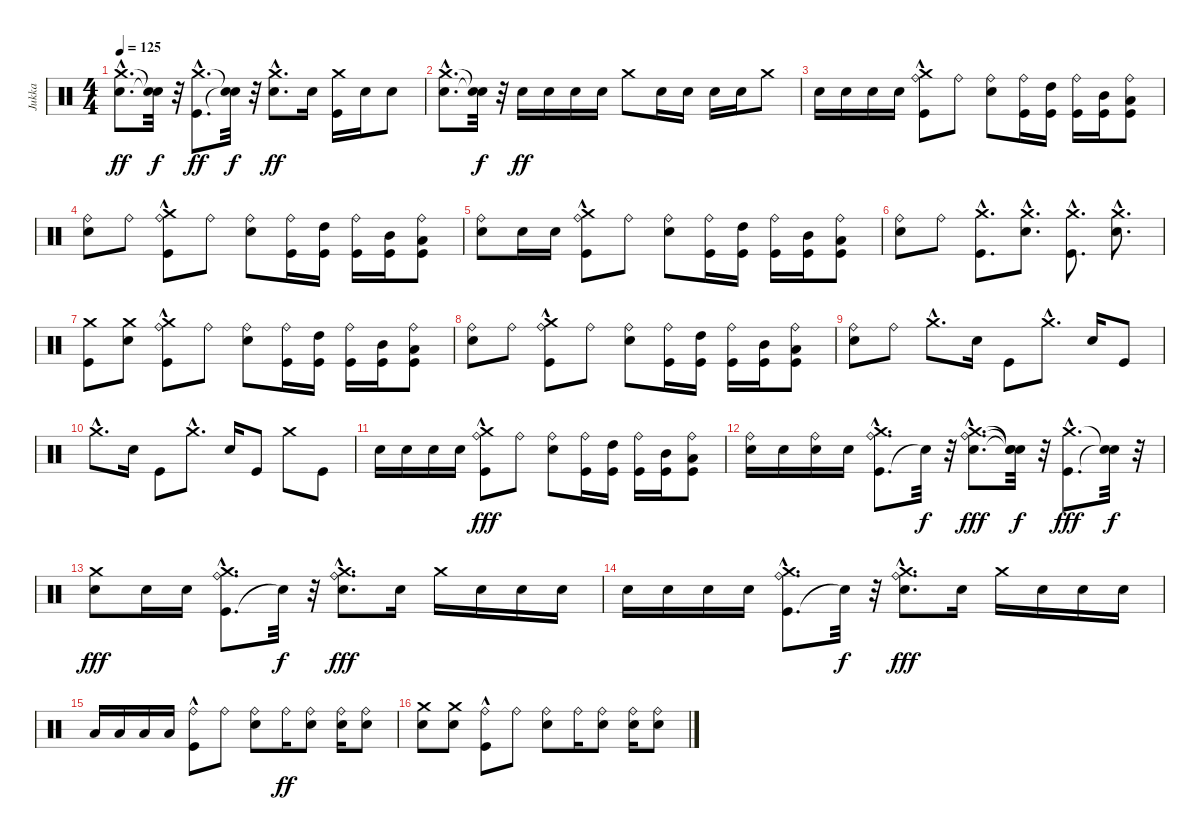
\track ("Jukka" "Jukka") {instrument percussion}
\staff {score}
\articulation defaults
\ts (4 4)
\tempo 125
\clef neutral
\ks c
("Electric Snare (hit)"{hac} "Crash medium (hit)"{hac}).8{d dy ff} ("Snare (hit)"{t} "Snare (hit)"{t}).32{dy f} r.32 ("Kick (hit)"{hac} "Crash medium (hit)"{hac}).8{d dy ff} ("Snare (hit)"{t} "Snare (hit)"{t}).32{dy f} r.32 ("Electric Snare (hit)"{hac} "Crash medium (hit)"{hac}).8{d dy ff} "Electric Snare (hit)".16 ("Kick (hit)" "Crash medium (hit)").16 "Electric Snare (hit)".16 "Electric Snare (hit)".8 |
("Electric Snare (hit)"{hac} "Crash medium (hit)"{hac}).8{d} ("Snare (hit)"{t} "Snare (hit)"{t}).32{dy f} r.32 "Electric Snare (hit)".16{dy ff} "Electric Snare (hit)".16 "Electric Snare (hit)".16 "Electric Snare (hit)".16 "Crash medium (hit)".8 "Electric Snare (hit)".16 "Electric Snare (hit)".16 "Electric Snare (hit)".16 "Electric Snare (hit)".16 "Crash medium (hit)".8 |
"Electric Snare (hit)".16 "Electric Snare (hit)".16 "Electric Snare (hit)".16 "Electric Snare (hit)".16 ("Kick (hit)" "Ride (bell)" "Crash medium (hit)"{hac}).8 "Ride (bell)".8 ("Electric Snare (hit)" "Ride (bell)").8 ("Kick (hit)" "Ride (bell)").16 ("Kick (hit)" "High Tom (hit)").16 ("Kick (hit)" "Ride (bell)").16 ("Kick (hit)" "Mid Tom (hit)").16 ("Kick (hit)" "Low Tom (hit)" "Ride (bell)").8 |
("Electric Snare (hit)" "Ride (bell)").8 "Ride (bell)".8 ("Kick (hit)" "Ride (bell)" "Crash medium (hit)"{hac}).8 "Ride (bell)".8 ("Electric Snare (hit)" "Ride (bell)").8 ("Kick (hit)" "Ride (bell)").16 ("Kick (hit)" "High Tom (hit)").16 ("Kick (hit)" "Ride (bell)").16 ("Kick (hit)" "Mid Tom (hit)").16 ("Kick (hit)" "Low Tom (hit)" "Ride (bell)").8 |
("Electric Snare (hit)" "Ride (bell)").8 "Electric Snare (hit)".16 "Electric Snare (hit)".16 ("Kick (hit)" "Ride (bell)" "Crash medium (hit)"{hac}).8 "Ride (bell)".8 ("Electric Snare (hit)" "Ride (bell)").8 ("Kick (hit)" "Ride (bell)").16 ("Kick (hit)" "High Tom (hit)").16 ("Kick (hit)" "Ride (bell)").16 ("Kick (hit)" "Mid Tom (hit)").16 ("Kick (hit)" "Low Tom (hit)" "Ride (bell)").8 |
("Electric Snare (hit)" "Ride (bell)").8 "Ride (bell)".8 ("Kick (hit)"{hac} "Crash medium (hit)"{hac}).8{d} ("Electric Snare (hit)"{hac} "Crash medium (hit)"{hac}).8{d} ("Kick (hit)"{hac} "Crash medium (hit)"{hac}).8{d} ("Electric Snare (hit)"{hac} "Crash medium (hit)"{hac}).8{d} |
("Kick (hit)" "Crash medium (hit)").8 ("Electric Snare (hit)" "Crash medium (hit)").8 ("Kick (hit)" "Ride (bell)" "Crash medium (hit)"{hac}).8 "Ride (bell)".8 ("Electric Snare (hit)" "Ride (bell)").8 ("Kick (hit)" "Ride (bell)").16 ("Kick (hit)" "High Tom (hit)").16 ("Kick (hit)" "Ride (bell)").16 ("Kick (hit)" "Mid Tom (hit)").16 ("Kick (hit)" "Low Tom (hit)" "Ride (bell)").8 |
("Electric Snare (hit)" "Ride (bell)").8 "Ride (bell)".8 ("Kick (hit)" "Ride (bell)" "Crash medium (hit)"{hac}).8 "Ride (bell)".8 ("Electric Snare (hit)" "Ride (bell)").8 ("Kick (hit)" "Ride (bell)").16 ("Kick (hit)" "High Tom (hit)").16 ("Kick (hit)" "Ride (bell)").16 ("Kick (hit)" "Mid Tom (hit)").16 ("Kick (hit)" "Low Tom (hit)" "Ride (bell)").8 |
("Electric Snare (hit)" "Ride (bell)").8 "Ride (bell)".8 "Crash medium (hit)"{hac}.8{d} "Electric Snare (hit)".16 "Kick (hit)".8 "Crash medium (hit)"{hac}.8{d} "Electric Snare (hit)".16 "Kick (hit)".8 |
"Crash medium (hit)"{hac}.8{d} "Electric Snare (hit)".16 "Kick (hit)".8 "Crash medium (hit)"{hac}.8{d} "Electric Snare (hit)".16 "Kick (hit)".8 "Crash medium (hit)".8 "Kick (hit)".8 |
"Electric Snare (hit)".16 "Electric Snare (hit)".16 "Electric Snare (hit)".16 "Electric Snare (hit)".16 ("Kick (hit)" "Ride (bell)" "Crash medium (hit)"{hac}).8{dy fff} "Ride (bell)".8 ("Electric Snare (hit)" "Ride (bell)").8 ("Kick (hit)" "Ride (bell)").16 ("Kick (hit)" "High Tom (hit)").16 ("Kick (hit)" "Ride (bell)").16 ("Kick (hit)" "Mid Tom (hit)").16 ("Kick (hit)" "Low Tom (hit)" "Ride (bell)").8 |
("Electric Snare (hit)" "Ride (bell)").16 "Electric Snare (hit)".16 ("Electric Snare (hit)" "Ride (bell)").16 "Electric Snare (hit)".16 ("Kick (hit)" "Ride (bell)" "Crash medium (hit)"{hac}).8{d} "Snare (hit)"{t}.32{dy f} r.32 ("Electric Snare (hit)"{hac} "Ride (bell)"{hac} "Crash medium (hit)"{hac}).8{d dy fff} ("Snare (hit)"{t} "Snare (hit)"{t} "Snare (hit)"{t}).32{dy f} r.32 ("Kick (hit)"{hac} "Crash medium (hit)"{hac}).8{d dy fff} ("Snare (hit)"{t} "Snare (hit)"{t}).32{dy f} r.32 |
("Electric Snare (hit)" "Crash medium (hit)").8{dy fff} "Electric Snare (hit)".16 "Electric Snare (hit)".16 ("Kick (hit)" "Ride (bell)" "Crash medium (hit)"{hac}).8{d} "Snare (hit)"{t}.32{dy f} r.32 ("Electric Snare (hit)"{hac} "Ride (bell)"{hac} "Crash medium (hit)"{hac}).8{d dy fff} "Electric Snare (hit)".16 "Crash medium (hit)".16 "Electric Snare (hit)".16 "Electric Snare (hit)".16 "Electric Snare (hit)".16 |
"Electric Snare (hit)".16 "Electric Snare (hit)".16 "Electric Snare (hit)".16 "Electric Snare (hit)".16 ("Kick (hit)" "Ride (bell)" "Crash medium (hit)"{hac}).8{d} "Snare (hit)"{t}.32{dy f} r.32 ("Electric Snare (hit)"{hac} "Ride (bell)"{hac} "Crash medium (hit)"{hac}).8{d dy fff} "Electric Snare (hit)".16 "Crash medium (hit)".16 "Electric Snare (hit)".16 "Electric Snare (hit)".16 "Electric Snare (hit)".16 |
"Low Floor Tom (hit)".16 "Low Floor Tom (hit)".16 "Low Floor Tom (hit)".16 "Low Floor Tom (hit)".16 ("Kick (hit)"{hac} "Ride (bell)").8 "Ride (bell)".8 ("Electric Snare (hit)" "Ride (bell)").8 "Ride (bell)".16{dy ff} ("Electric Snare (hit)" "Ride (bell)").8 ("Electric Snare (hit)" "Ride (bell)").16 ("Electric Snare (hit)" "Ride (bell)").8 |
("Electric Snare (hit)" "Crash medium (hit)").8 ("Electric Snare (hit)" "Crash medium (hit)").8 ("Kick (hit)"{hac} "Ride (bell)").8 "Ride (bell)".8 ("Electric Snare (hit)" "Ride (bell)").8 "Ride (bell)".16 ("Electric Snare (hit)" "Ride (bell)").8 ("Electric Snare (hit)" "Ride (bell)").16 ("Electric Snare (hit)" "Ride (bell)").8
